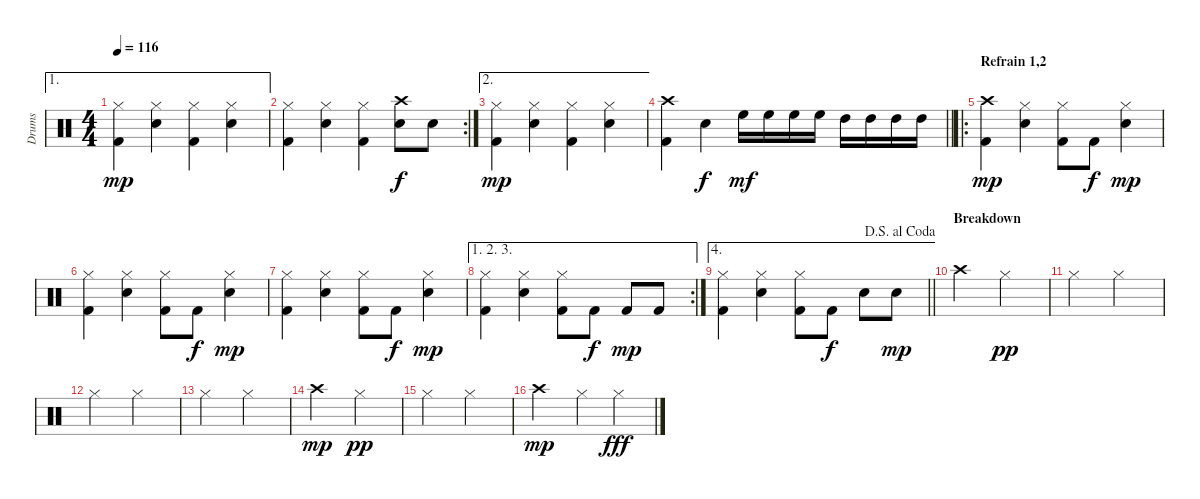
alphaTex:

\track ("Drums" "Drums") {instrument percussion}
\staff {score}
\articulation defaults
\ae 1
\ts (4 4)
\tempo 116
\clef neutral
\ks c
("Hi-Hat (closed)" "Kick (hit) 2").4{dy mp} ("Hi-Hat (closed)" "Snare (hit) 2").4 ("Hi-Hat (closed)" "Kick (hit) 2").4 ("Hi-Hat (closed)" "Snare (hit) 2").4 |
\rc 2
("Hi-Hat (closed)" "Kick (hit) 2").4 ("Hi-Hat (closed)" "Snare (hit) 2").4 ("Hi-Hat (closed)" "Kick (hit) 2").4 ("Crash high (hit)" "Snare (hit) 2").8{dy f} "Electric Snare (hit)".8 |
\ae 2
("Hi-Hat (closed)" "Kick (hit) 2").4{dy mp} ("Hi-Hat (closed)" "Snare (hit) 2").4 ("Hi-Hat (closed)" "Kick (hit) 2").4 ("Hi-Hat (closed)" "Snare (hit) 2").4 |
\barLineRight lightlight
("Crash high (hit)" "Kick (hit) 2").4 "Snare (hit) 2".4{dy f} "High Floor Tom (hit)".16{dy mf} "High Floor Tom (hit)".16 "High Floor Tom (hit)".16 "High Floor Tom (hit)".16 "High Tom (hit)".16 "High Tom (hit)".16 "High Tom (hit)".16 "High Tom (hit)".16 |
\ro
\section ("" "Refrain 1,2")
("Crash high (hit)" "Kick (hit) 2").4{dy mp} ("Hi-Hat (closed)" "Snare (hit) 2").4 ("Hi-Hat (closed)" "Kick (hit) 2").8 "Kick (hit) 2".8{dy f} ("Hi-Hat (closed)" "Snare (hit) 2").4{dy mp} |
("Hi-Hat (closed)" "Kick (hit) 2").4 ("Hi-Hat (closed)" "Snare (hit) 2").4 ("Hi-Hat (closed)" "Kick (hit) 2").8 "Kick (hit) 2".8{dy f} ("Hi-Hat (closed)" "Snare (hit) 2").4{dy mp} |
("Hi-Hat (closed)" "Kick (hit) 2").4 ("Hi-Hat (closed)" "Snare (hit) 2").4 ("Hi-Hat (closed)" "Kick (hit) 2").8 "Kick (hit) 2".8{dy f} ("Hi-Hat (closed)" "Snare (hit) 2").4{dy mp} |
\ae (1 2 3)
\rc 2
("Hi-Hat (closed)" "Kick (hit) 2").4 ("Hi-Hat (closed)" "Snare (hit) 2").4 ("Hi-Hat (closed)" "Kick (hit) 2").8 "Kick (hit) 2".8{dy f} "Kick (hit) 2".8{dy mp} "Kick (hit) 2".8 |
\ae 4
\jump dalsegnoalcoda
\barLineRight lightlight
("Hi-Hat (closed)" "Kick (hit) 2").4 ("Hi-Hat (closed)" "Snare (hit) 2").4 ("Hi-Hat (closed)" "Kick (hit) 2").8 "Kick (hit) 2".8{dy f} "Snare (hit) 2".8 "Snare (hit) 2".8{dy mp} |
\section ("" "Breakdown")
"Crash high (hit)".2 "Hi-Hat (closed)".2{dy pp} |
"Hi-Hat (closed)".2 "Hi-Hat (closed)".2 |
"Hi-Hat (closed)".2 "Hi-Hat (closed)".2 |
"Hi-Hat (closed)".2 "Hi-Hat (closed)".2 |
"Crash high (hit)".2{dy mp} "Hi-Hat (closed)".2{dy pp} |
"Hi-Hat (closed)".2 "Hi-Hat (closed)".2 |
"Crash high (hit)".2{dy mp} "Hi-Hat (closed)".4 "Hi-Hat (closed)".4{dy fff}
